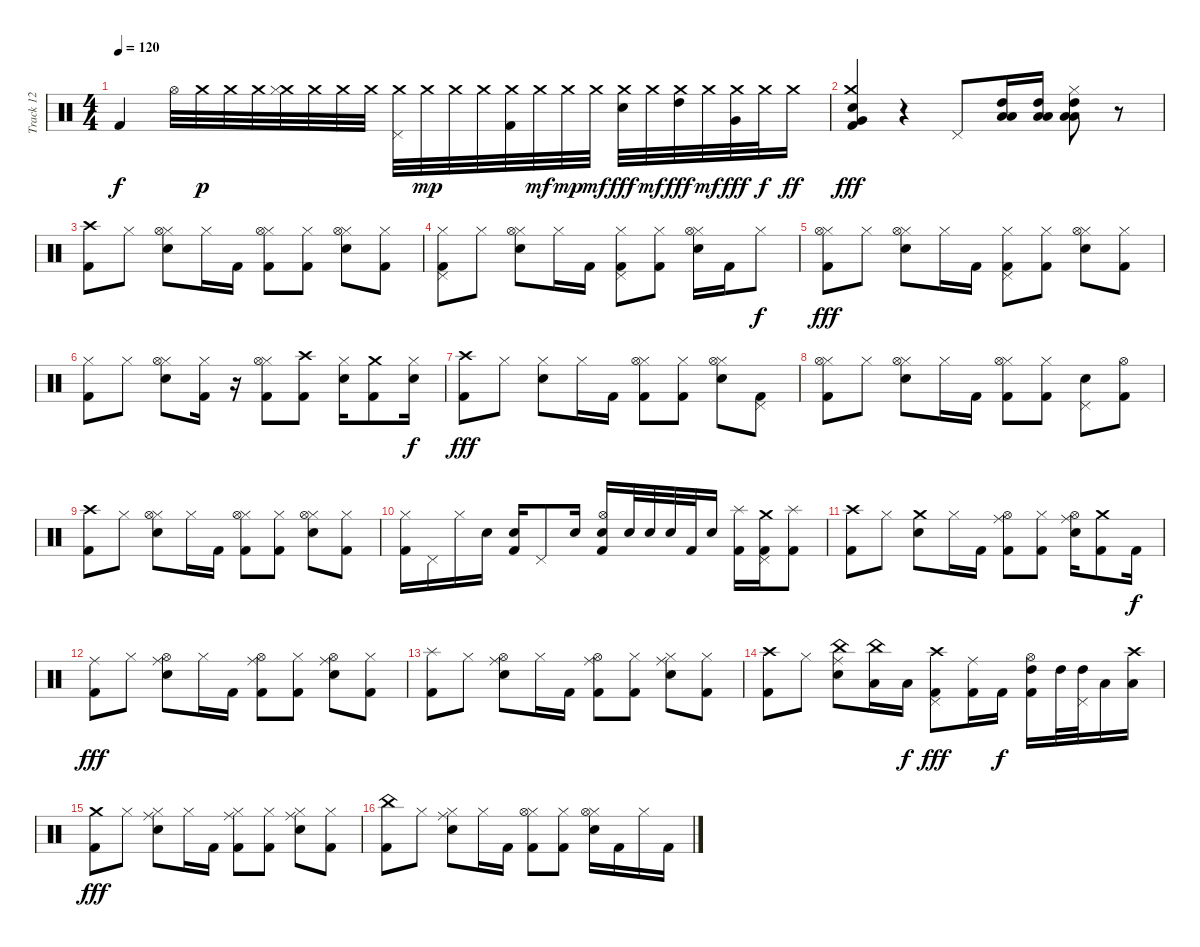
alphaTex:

\track ("Track 12" "Track 12") {instrument percussion}
\staff {score}
\articulation defaults
\ts (4 4)
\tempo 120
\clef neutral
\ks c "Kick (hit) 2".4{dy f} "Hi-Hat (open)".32 "Crash medium (hit)".32{dy p} "Crash medium (hit)".32 "Crash medium (hit)".32
("Crash medium (hit)" "Hi-Hat (closed)").32 "Crash medium (hit)".32 "Crash medium (hit)".32 "Crash medium (hit)".32 ("Crash medium (hit)" "Pedal Hi-Hat (hit)").32 "Crash medium (hit)".32{dy mp} "Crash medium (hit)".32 "Crash medium (hit)".32 ("Crash medium (hit)" "Kick (hit) 2").32 "Crash medium (hit)".32{dy mf} "Crash medium (hit)".32{dy mp} "Crash medium (hit)".32{dy mf} ("Crash medium (hit)" "Electric Snare (hit)").32{dy fff} "Crash medium (hit)".32{dy mf} ("Crash medium (hit)" "High Tom (hit)").32{dy fff} "Crash medium (hit)".32{dy mf} ("Crash medium (hit)" "Very Low Tom (hit)").32{dy fff} "Crash medium (hit)".32{dy f} "Crash medium (hit)".16{dy ff} |
("Crash medium (hit)" "Very Low Tom (hit)" "Snare (hit) 2" "Kick (hit) 2").4{dy fff} r.4 "Pedal Hi-Hat (hit)".8 ("High Tom (hit)" "Low Tom (hit)" "Low Floor Tom (hit)").16 ("High Tom (hit)" "Low Tom (hit)" "Low Floor Tom (hit)").16 ("Hi-Hat (closed)" "High Tom (hit)" "Low Tom (hit)" "Low Floor Tom (hit)").8 r.8 |
("Crash high (hit)" "Kick (hit) 2").8 "Hi-Hat (closed)".8 ("Hi-Hat (closed)" "Hi-Hat (open)" "Snare (hit) 2").8 "Hi-Hat (closed)".16 "Kick (hit) 2".16 ("Hi-Hat (closed)" "Hi-Hat (open)" "Kick (hit) 2").8 ("Hi-Hat (closed)" "Kick (hit) 2").8 ("Hi-Hat (closed)" "Hi-Hat (open)" "Snare (hit) 2").8 ("Hi-Hat (closed)" "Kick (hit) 2").8 |
("Hi-Hat (closed)" "Pedal Hi-Hat (hit)" "Kick (hit) 2").8 "Hi-Hat (closed)".8 ("Hi-Hat (closed)" "Hi-Hat (open)" "Electric Snare (hit)").8 "Hi-Hat (closed)".16 "Kick (hit) 2".16 ("Hi-Hat (closed)" "Pedal Hi-Hat (hit)" "Kick (hit) 2").8 ("Hi-Hat (closed)" "Kick (hit) 2").8 ("Hi-Hat (closed)" "Hi-Hat (open)" "Snare (hit) 2").16 "Kick (hit) 2".16 "Hi-Hat (closed)".8{dy f} |
("Hi-Hat (closed)" "Hi-Hat (open)" "Kick (hit) 2").8{dy fff} "Hi-Hat (closed)".8 ("Hi-Hat (closed)" "Hi-Hat (open)" "Snare (hit) 2").8 "Hi-Hat (closed)".16 "Kick (hit) 2".16 ("Hi-Hat (closed)" "Pedal Hi-Hat (hit)" "Kick (hit) 2").8 ("Hi-Hat (closed)" "Kick (hit) 2").8 ("Hi-Hat (closed)" "Hi-Hat (open)" "Snare (hit) 2").8 ("Hi-Hat (closed)" "Kick (hit) 2").8 |
("Hi-Hat (closed)" "Kick (hit) 2").8 "Hi-Hat (closed)".8 ("Hi-Hat (closed)" "Hi-Hat (open)" "Snare (hit) 2").8 ("Hi-Hat (closed)" "Kick (hit) 2").16 r.16 ("Hi-Hat (closed)" "Hi-Hat (open)" "Kick (hit) 2").8 ("Crash high (hit)" "Kick (hit) 2").8 ("Hi-Hat (closed)" "Snare (hit) 2").16 ("Crash medium (hit)" "Kick (hit) 2").8 ("Hi-Hat (closed)" "Snare (hit) 2").16{dy f} |
("Crash high (hit)" "Kick (hit) 2").8{dy fff} "Hi-Hat (closed)".8 ("Hi-Hat (closed)" "Snare (hit) 2").8 "Hi-Hat (closed)".16 "Kick (hit) 2".16 ("Hi-Hat (closed)" "Hi-Hat (open)" "Kick (hit) 2").8 ("Hi-Hat (closed)" "Kick (hit) 2").8 ("Hi-Hat (closed)" "Hi-Hat (open)" "Snare (hit) 2").8 ("Pedal Hi-Hat (hit)" "Kick (hit) 2").8 |
("Hi-Hat (closed)" "Hi-Hat (open)" "Kick (hit) 2").8 "Hi-Hat (closed)".8 ("Hi-Hat (closed)" "Hi-Hat (open)" "Snare (hit) 2").8 "Hi-Hat (closed)".16 "Kick (hit) 2".16 ("Hi-Hat (closed)" "Hi-Hat (open)" "Kick (hit) 2").8 ("Hi-Hat (closed)" "Kick (hit) 2").8 ("Pedal Hi-Hat (hit)" "Snare (hit) 2").8 ("Hi-Hat (open)" "Kick (hit) 2").8 |
("Crash high (hit)" "Kick (hit) 2").8 "Hi-Hat (closed)".8 ("Hi-Hat (closed)" "Hi-Hat (open)" "Snare (hit) 2").8 "Hi-Hat (closed)".16 "Kick (hit) 2".16 ("Hi-Hat (closed)" "Hi-Hat (open)" "Kick (hit) 2").8 ("Hi-Hat (closed)" "Kick (hit) 2").8 ("Hi-Hat (closed)" "Hi-Hat (open)" "Snare (hit) 2").8 ("Hi-Hat (closed)" "Kick (hit) 2").8 |
("Hi-Hat (closed)" "Kick (hit) 2").16 "Pedal Hi-Hat (hit)".16 "Hi-Hat (closed)".16 "Snare (hit) 2".16 ("Snare (hit) 2" "Kick (hit) 2").16 "Pedal Hi-Hat (hit)".8 "Snare (hit) 2".16 ("Hi-Hat (open)" "Snare (hit) 2" "Kick (hit) 2").16 "Snare (hit) 2".32 "Snare (hit) 2".32 "Electric Snare (hit)".32 "Kick (hit) 2".32 "Snare (hit) 2".16 ("Splash (hit)" "Kick (hit) 2").16 ("Crash medium (hit)" "Pedal Hi-Hat (hit)" "Kick (hit) 2").16 ("Splash (hit)" "Kick (hit) 2").8 |
("Crash high (hit)" "Kick (hit) 2").8 "Hi-Hat (closed)".8 ("Crash medium (hit)" "Snare (hit) 2").8 "Hi-Hat (closed)".16 "Kick (hit) 2".16 ("Ride (middle)" "Hi-Hat (open)" "Kick (hit) 2").8 ("Hi-Hat (closed)" "Kick (hit) 2").8 ("Ride (middle)" "Hi-Hat (open)" "Snare (hit) 2").16 ("Crash medium (hit)" "Kick (hit) 2").8 "Kick (hit) 2".16{dy f} |
("Ride (middle)" "Kick (hit) 2").8{dy fff} "Hi-Hat (closed)".8 ("Ride (middle)" "Hi-Hat (open)" "Snare (hit) 2").8 "Hi-Hat (closed)".16 "Kick (hit) 2".16 ("Ride (middle)" "Hi-Hat (open)" "Kick (hit) 2").8 ("Hi-Hat (closed)" "Kick (hit) 2").8 ("Ride (middle)" "Hi-Hat (open)" "Snare (hit) 2").8 ("Hi-Hat (closed)" "Kick (hit) 2").8 |
("Splash (hit)" "Kick (hit) 2").8 "Hi-Hat (closed)".8 ("Ride (middle)" "Hi-Hat (open)" "Snare (hit) 2").8 "Hi-Hat (closed)".16 "Kick (hit) 2".16 ("Ride (middle)" "Hi-Hat (open)" "Kick (hit) 2").8 ("Hi-Hat (closed)" "Kick (hit) 2").8 ("Hi-Hat (closed)" "Ride (middle)" "Snare (hit) 2").8 ("Hi-Hat (closed)" "Kick (hit) 2").8 |
("Crash high (hit)" "Kick (hit) 2").8 "Hi-Hat (closed)".8 ("China (hit)" "Ride (middle)" "Snare (hit) 2").8 ("China (hit)" "Low Tom (hit)").16 "Low Tom (hit)".16{dy f} ("Crash high (hit)" "Pedal Hi-Hat (hit)" "Kick (hit) 2").8{dy fff} ("Ride (middle)" "Kick (hit) 2").16 "Kick (hit) 2".16{dy f} ("Hi-Hat (open)" "High Tom (hit)" "Kick (hit) 2").16 "High Tom (hit)".32 ("Pedal Hi-Hat (hit)" "High Tom (hit)").32 "Low Tom (hit)".16 ("Crash high (hit)" "Low Tom (hit)").16 |
("Crash medium (hit)" "Kick (hit) 2").8{dy fff} "Hi-Hat (closed)".8 ("Hi-Hat (closed)" "Ride (middle)" "Electric Snare (hit)").8 "Hi-Hat (closed)".16 "Kick (hit) 2".16 ("Hi-Hat (closed)" "Ride (middle)" "Kick (hit) 2").8 ("Hi-Hat (closed)" "Kick (hit) 2").8 ("Hi-Hat (closed)" "Ride (middle)" "Snare (hit) 2").8 ("Hi-Hat (closed)" "Kick (hit) 2").8 |
("China (hit)" "Kick (hit) 2").8 "Hi-Hat (closed)".8 ("Hi-Hat (closed)" "Ride (middle)" "Snare (hit) 2").8 "Hi-Hat (closed)".16 "Kick (hit) 2".16 ("Hi-Hat (closed)" "Hi-Hat (open)" "Kick (hit) 2").8 ("Hi-Hat (closed)" "Kick (hit) 2").8 ("Hi-Hat (closed)" "Hi-Hat (open)" "Snare (hit) 2").16 "Kick (hit) 2".16 "Hi-Hat (closed)".16 "Kick (hit) 2".16
